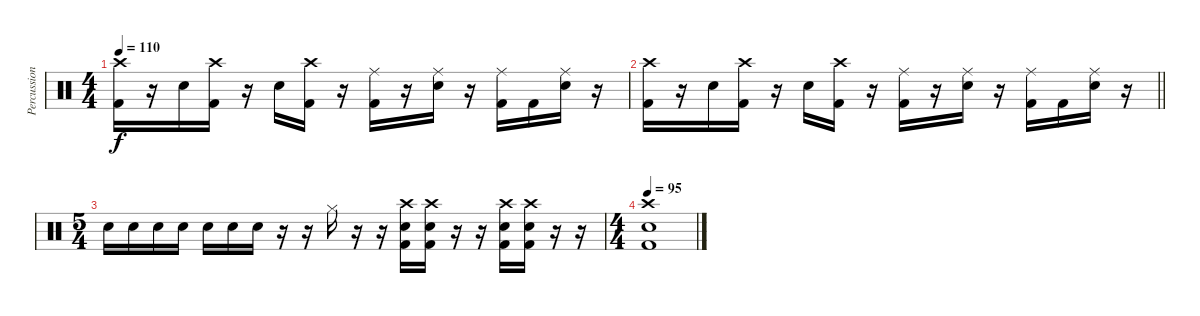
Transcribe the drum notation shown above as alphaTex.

\track ("Percussion" "Percussion") {instrument percussion}
\staff {score}
\articulation defaults
\ts (4 4)
\tempo 110
\clef neutral
\ks c
("Crash high (hit)" "Kick (hit) 2").16{dy f} r.16 "Electric Snare (hit)".16 ("Crash high (hit)" "Kick (hit) 2").16 r.16 "Electric Snare (hit)".16 ("Crash high (hit)" "Kick (hit) 2").16 r.16 ("Ride (middle)" "Kick (hit) 2").16 r.16 ("Ride (middle)" "Electric Snare (hit)").16 r.16 ("Ride (middle)" "Kick (hit) 2").16 "Kick (hit) 2".16 ("Ride (middle)" "Electric Snare (hit)").16 r.16 |
\barLineRight lightlight
("Crash high (hit)" "Kick (hit) 2").16 r.16 "Electric Snare (hit)".16 ("Crash high (hit)" "Kick (hit) 2").16 r.16 "Electric Snare (hit)".16 ("Crash high (hit)" "Kick (hit) 2").16 r.16 ("Ride (middle)" "Kick (hit) 2").16 r.16 ("Ride (middle)" "Electric Snare (hit)").16 r.16 ("Ride (middle)" "Kick (hit) 2").16 "Kick (hit) 2".16 ("Ride (middle)" "Electric Snare (hit)").16 r.16 |
\ts (5 4)
"Electric Snare (hit)".16 "Electric Snare (hit)".16 "Electric Snare (hit)".16 "Electric Snare (hit)".16 "Electric Snare (hit)".16 "Electric Snare (hit)".16 "Electric Snare (hit)".16 r.16 r.16 "Hi-Hat (closed)".16 r.16 r.16 ("Electric Snare (hit)" "Crash high (hit)" "Kick (hit) 2").16 ("Electric Snare (hit)" "Crash high (hit)" "Kick (hit) 2").16 r.16 r.16 ("Electric Snare (hit)" "Crash high (hit)" "Kick (hit) 2").16 ("Electric Snare (hit)" "Crash high (hit)" "Kick (hit) 2").16 r.16 r.16 |
\ts (4 4)
\tempo 95
("Crash high (hit)" "Electric Snare (hit)" "Kick (hit) 2").1
